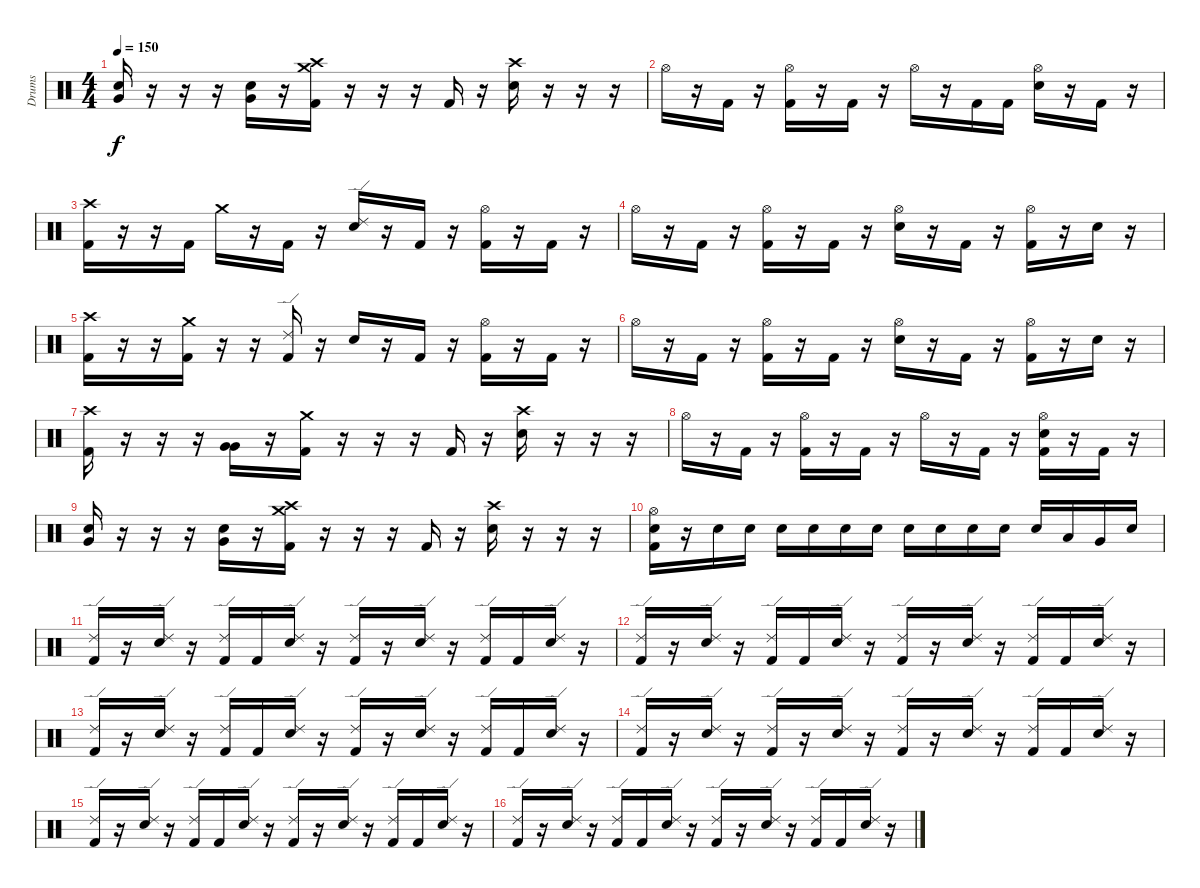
\track ("Drums" "Drums") {instrument percussion}
\staff {score}
\articulation defaults
\ts (4 4)
\tempo 150
\clef neutral
\ks c
("Very Low Tom (hit)" "Electric Snare (hit)").16{dy f} r.16 r.16 r.16 ("Very Low Tom (hit)" "Electric Snare (hit)").16 r.16 ("Crash high (hit)" "Crash medium (hit)" "Kick (hit) 2").16 r.16 r.16 r.16 "Kick (hit) 2".16 r.16 ("Crash high (hit)" "Electric Snare (hit)").16 r.16 r.16 r.16 |
"Hi-Hat (open)".16 r.16 "Kick (hit) 2".16 r.16 ("Hi-Hat (open)" "Kick (hit) 2").16 r.16 "Kick (hit) 2".16 r.16 "Hi-Hat (open)".16 r.16 "Kick (hit) 2".16 "Kick (hit) 2".16 ("Hi-Hat (open)" "Electric Snare (hit)").16 r.16 "Kick (hit) 2".16 r.16 |
("Crash high (hit)" "Kick (hit) 2").16 r.16 r.16 "Kick (hit) 2".16 "Crash medium (hit)".16 r.16 "Kick (hit) 2".16 r.16 ("Ride (edge) 2" "Electric Snare (hit)").16 r.16 "Kick (hit) 2".16 r.16 ("Hi-Hat (open)" "Kick (hit) 2").16 r.16 "Kick (hit) 2".16 r.16 |
"Hi-Hat (open)".16 r.16 "Kick (hit) 2".16 r.16 ("Hi-Hat (open)" "Kick (hit) 2").16 r.16 "Kick (hit) 2".16 r.16 ("Hi-Hat (open)" "Electric Snare (hit)").16 r.16 "Kick (hit) 2".16 r.16 ("Hi-Hat (open)" "Kick (hit) 2").16 r.16 "Electric Snare (hit)".16 r.16 |
("Crash high (hit)" "Kick (hit) 2").16 r.16 r.16 ("Crash medium (hit)" "Kick (hit) 2").16 r.16 r.16 ("Ride (edge) 2" "Kick (hit) 2").16 r.16 "Electric Snare (hit)".16 r.16 "Kick (hit) 2".16 r.16 ("Hi-Hat (open)" "Kick (hit) 2").16 r.16 "Kick (hit) 2".16 r.16 |
"Hi-Hat (open)".16 r.16 "Kick (hit) 2".16 r.16 ("Hi-Hat (open)" "Kick (hit) 2").16 r.16 "Kick (hit) 2".16 r.16 ("Hi-Hat (open)" "Electric Snare (hit)").16 r.16 "Kick (hit) 2".16 r.16 ("Hi-Hat (open)" "Kick (hit) 2").16 r.16 "Electric Snare (hit)".16 r.16 |
("Crash high (hit)" "Kick (hit) 2").16 r.16 r.16 r.16 ("Very Low Tom (hit)" "Very Low Tom (hit)").16 r.16 ("Crash medium (hit)" "Kick (hit) 2").16 r.16 r.16 r.16 "Kick (hit) 2".16 r.16 ("Crash high (hit)" "Electric Snare (hit)").16 r.16 r.16 r.16 |
"Hi-Hat (open)".16 r.16 "Kick (hit) 2".16 r.16 ("Hi-Hat (open)" "Kick (hit) 2").16 r.16 "Kick (hit) 2".16 r.16 "Hi-Hat (open)".16 r.16 "Kick (hit) 2".16 r.16 ("Hi-Hat (open)" "Electric Snare (hit)" "Kick (hit) 2").16 r.16 "Kick (hit) 2".16 r.16 |
("Very Low Tom (hit)" "Electric Snare (hit)").16 r.16 r.16 r.16 ("Very Low Tom (hit)" "Electric Snare (hit)").16 r.16 ("Crash high (hit)" "Crash medium (hit)" "Kick (hit) 2").16 r.16 r.16 r.16 "Kick (hit) 2".16 r.16 ("Crash high (hit)" "Electric Snare (hit)").16 r.16 r.16 r.16 |
("Hi-Hat (open)" "Electric Snare (hit)" "Kick (hit) 2").16 r.16 "Electric Snare (hit)".16 "Electric Snare (hit)".16 "Electric Snare (hit)".16 "Electric Snare (hit)".16 "Electric Snare (hit)".16 "Electric Snare (hit)".16 "Electric Snare (hit)".16 "Electric Snare (hit)".16 "Electric Snare (hit)".16 "Electric Snare (hit)".16 "Electric Snare (hit)".16 "Low Tom (hit)".16 "Very Low Tom (hit)".16 "Electric Snare (hit)".16 |
("Ride (edge) 2" "Kick (hit) 2").16 r.16 ("Ride (edge) 2" "Electric Snare (hit)").16 r.16 ("Ride (edge) 2" "Kick (hit) 2").16 "Kick (hit) 2".16 ("Ride (edge) 2" "Electric Snare (hit)").16 r.16 ("Ride (edge) 2" "Kick (hit) 2").16 r.16 ("Ride (edge) 2" "Electric Snare (hit)").16 r.16 ("Ride (edge) 2" "Kick (hit) 2").16 "Kick (hit) 2".16 ("Ride (edge) 2" "Electric Snare (hit)").16 r.16 |
("Ride (edge) 2" "Kick (hit) 2").16 r.16 ("Ride (edge) 2" "Electric Snare (hit)").16 r.16 ("Ride (edge) 2" "Kick (hit) 2").16 "Kick (hit) 2".16 ("Ride (edge) 2" "Electric Snare (hit)").16 r.16 ("Ride (edge) 2" "Kick (hit) 2").16 r.16 ("Ride (edge) 2" "Electric Snare (hit)").16 r.16 ("Ride (edge) 2" "Kick (hit) 2").16 "Kick (hit) 2".16 ("Ride (edge) 2" "Electric Snare (hit)").16 r.16 |
("Ride (edge) 2" "Kick (hit) 2").16 r.16 ("Ride (edge) 2" "Electric Snare (hit)").16 r.16 ("Ride (edge) 2" "Kick (hit) 2").16 "Kick (hit) 2".16 ("Ride (edge) 2" "Electric Snare (hit)").16 r.16 ("Ride (edge) 2" "Kick (hit) 2").16 r.16 ("Ride (edge) 2" "Electric Snare (hit)").16 r.16 ("Ride (edge) 2" "Kick (hit) 2").16 "Kick (hit) 2".16 ("Ride (edge) 2" "Electric Snare (hit)").16 r.16 |
("Ride (edge) 2" "Kick (hit) 2").16 r.16 ("Ride (edge) 2" "Electric Snare (hit)").16 r.16 ("Ride (edge) 2" "Kick (hit) 2").16 r.16 ("Ride (edge) 2" "Electric Snare (hit)").16 r.16 ("Ride (edge) 2" "Kick (hit) 2").16 r.16 ("Ride (edge) 2" "Electric Snare (hit)").16 r.16 ("Ride (edge) 2" "Kick (hit) 2").16 "Kick (hit) 2".16 ("Ride (edge) 2" "Electric Snare (hit)").16 r.16 |
("Ride (edge) 2" "Kick (hit) 2").16 r.16 ("Ride (edge) 2" "Electric Snare (hit)").16 r.16 ("Ride (edge) 2" "Kick (hit) 2").16 "Kick (hit) 2".16 ("Ride (edge) 2" "Electric Snare (hit)").16 r.16 ("Ride (edge) 2" "Kick (hit) 2").16 r.16 ("Ride (edge) 2" "Electric Snare (hit)").16 r.16 ("Ride (edge) 2" "Kick (hit) 2").16 "Kick (hit) 2".16 ("Ride (edge) 2" "Electric Snare (hit)").16 r.16 |
("Ride (edge) 2" "Kick (hit) 2").16 r.16 ("Ride (edge) 2" "Electric Snare (hit)").16 r.16 ("Ride (edge) 2" "Kick (hit) 2").16 "Kick (hit) 2".16 ("Ride (edge) 2" "Electric Snare (hit)").16 r.16 ("Ride (edge) 2" "Kick (hit) 2").16 r.16 ("Ride (edge) 2" "Electric Snare (hit)").16 r.16 ("Ride (edge) 2" "Kick (hit) 2").16 "Kick (hit) 2".16 ("Ride (edge) 2" "Electric Snare (hit)").16 r.16
